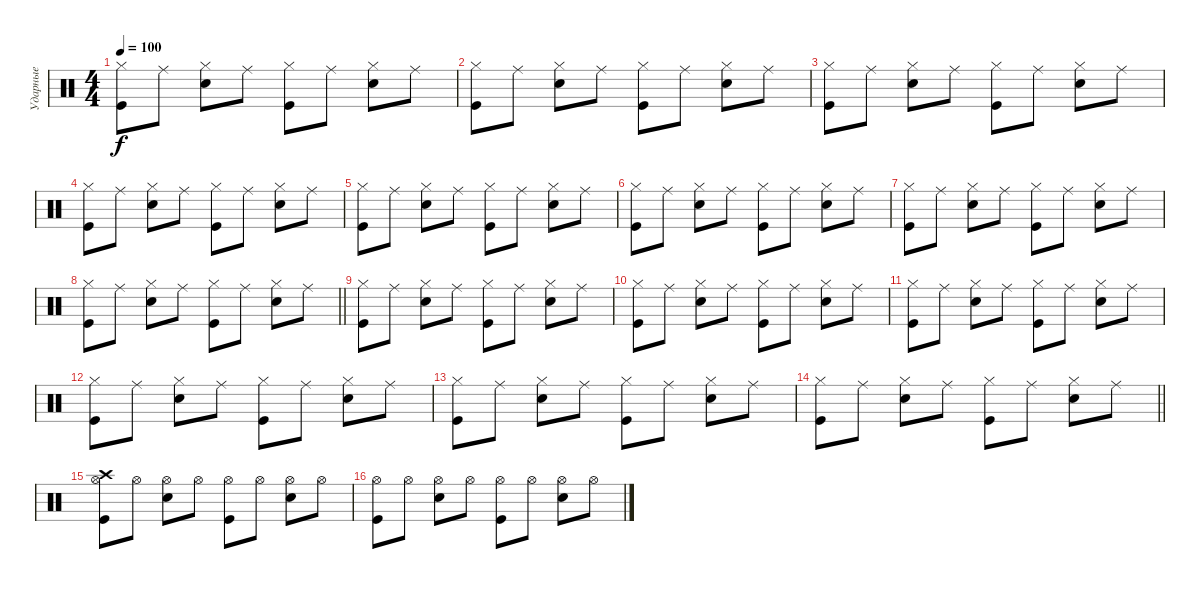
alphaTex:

\track ("Ударные" "Ударные") {instrument percussion}
\staff {score}
\articulation defaults
\ts (4 4)
\tempo 100
\clef neutral
\ks c
("Hi-Hat (closed)" "Kick (hit)").8{dy f} "Ride (middle)".8 ("Hi-Hat (closed)" "Snare (hit) 2").8 "Ride (middle)".8 ("Hi-Hat (closed)" "Kick (hit)").8 "Ride (middle)".8 ("Hi-Hat (closed)" "Snare (hit) 2").8 "Ride (middle)".8 |
("Hi-Hat (closed)" "Kick (hit)").8 "Ride (middle)".8 ("Hi-Hat (closed)" "Snare (hit) 2").8 "Ride (middle)".8 ("Hi-Hat (closed)" "Kick (hit)").8 "Ride (middle)".8 ("Hi-Hat (closed)" "Snare (hit) 2").8 "Ride (middle)".8 |
("Hi-Hat (closed)" "Kick (hit)").8 "Ride (middle)".8 ("Hi-Hat (closed)" "Snare (hit) 2").8 "Ride (middle)".8 ("Hi-Hat (closed)" "Kick (hit)").8 "Ride (middle)".8 ("Hi-Hat (closed)" "Snare (hit) 2").8 "Ride (middle)".8 |
("Hi-Hat (closed)" "Kick (hit)").8 "Ride (middle)".8 ("Hi-Hat (closed)" "Snare (hit) 2").8 "Ride (middle)".8 ("Hi-Hat (closed)" "Kick (hit)").8 "Ride (middle)".8 ("Hi-Hat (closed)" "Snare (hit) 2").8 "Ride (middle)".8 |
("Hi-Hat (closed)" "Kick (hit)").8 "Ride (middle)".8 ("Hi-Hat (closed)" "Snare (hit) 2").8 "Ride (middle)".8 ("Hi-Hat (closed)" "Kick (hit)").8 "Ride (middle)".8 ("Hi-Hat (closed)" "Snare (hit) 2").8 "Ride (middle)".8 |
("Hi-Hat (closed)" "Kick (hit)").8 "Ride (middle)".8 ("Hi-Hat (closed)" "Snare (hit) 2").8 "Ride (middle)".8 ("Hi-Hat (closed)" "Kick (hit)").8 "Ride (middle)".8 ("Hi-Hat (closed)" "Snare (hit) 2").8 "Ride (middle)".8 |
("Hi-Hat (closed)" "Kick (hit)").8 "Ride (middle)".8 ("Hi-Hat (closed)" "Snare (hit) 2").8 "Ride (middle)".8 ("Hi-Hat (closed)" "Kick (hit)").8 "Ride (middle)".8 ("Hi-Hat (closed)" "Snare (hit) 2").8 "Ride (middle)".8 |
\barLineRight lightlight
("Hi-Hat (closed)" "Kick (hit)").8 "Ride (middle)".8 ("Hi-Hat (closed)" "Snare (hit) 2").8 "Ride (middle)".8 ("Hi-Hat (closed)" "Kick (hit)").8 "Ride (middle)".8 ("Hi-Hat (closed)" "Snare (hit) 2").8 "Ride (middle)".8 |
("Hi-Hat (closed)" "Kick (hit)").8 "Ride (middle)".8 ("Hi-Hat (closed)" "Snare (hit) 2").8 "Ride (middle)".8 ("Hi-Hat (closed)" "Kick (hit)").8 "Ride (middle)".8 ("Hi-Hat (closed)" "Snare (hit) 2").8 "Ride (middle)".8 |
("Hi-Hat (closed)" "Kick (hit)").8 "Ride (middle)".8 ("Hi-Hat (closed)" "Snare (hit) 2").8 "Ride (middle)".8 ("Hi-Hat (closed)" "Kick (hit)").8 "Ride (middle)".8 ("Hi-Hat (closed)" "Snare (hit) 2").8 "Ride (middle)".8 |
("Hi-Hat (closed)" "Kick (hit)").8 "Ride (middle)".8 ("Hi-Hat (closed)" "Snare (hit) 2").8 "Ride (middle)".8 ("Hi-Hat (closed)" "Kick (hit)").8 "Ride (middle)".8 ("Hi-Hat (closed)" "Snare (hit) 2").8 "Ride (middle)".8 |
("Hi-Hat (closed)" "Kick (hit)").8 "Ride (middle)".8 ("Hi-Hat (closed)" "Snare (hit) 2").8 "Ride (middle)".8 ("Hi-Hat (closed)" "Kick (hit)").8 "Ride (middle)".8 ("Hi-Hat (closed)" "Snare (hit) 2").8 "Ride (middle)".8 |
("Hi-Hat (closed)" "Kick (hit)").8 "Ride (middle)".8 ("Hi-Hat (closed)" "Snare (hit) 2").8 "Ride (middle)".8 ("Hi-Hat (closed)" "Kick (hit)").8 "Ride (middle)".8 ("Hi-Hat (closed)" "Snare (hit) 2").8 "Ride (middle)".8 |
\barLineRight lightlight
("Hi-Hat (closed)" "Kick (hit)").8 "Ride (middle)".8 ("Hi-Hat (closed)" "Snare (hit) 2").8 "Ride (middle)".8 ("Hi-Hat (closed)" "Kick (hit)").8 "Ride (middle)".8 ("Hi-Hat (closed)" "Snare (hit) 2").8 "Ride (middle)".8 |
("Hi-Hat (open)" "Kick (hit)" "Crash high (hit)").8 "Hi-Hat (open)".8 ("Hi-Hat (open)" "Snare (hit) 2").8 "Hi-Hat (open)".8 ("Hi-Hat (open)" "Kick (hit)").8 "Hi-Hat (open)".8 ("Hi-Hat (open)" "Snare (hit) 2").8 "Hi-Hat (open)".8 |
("Hi-Hat (open)" "Kick (hit)").8 "Hi-Hat (open)".8 ("Hi-Hat (open)" "Snare (hit) 2").8 "Hi-Hat (open)".8 ("Hi-Hat (open)" "Kick (hit)").8 "Hi-Hat (open)".8 ("Hi-Hat (open)" "Snare (hit) 2").8 "Hi-Hat (open)".8
